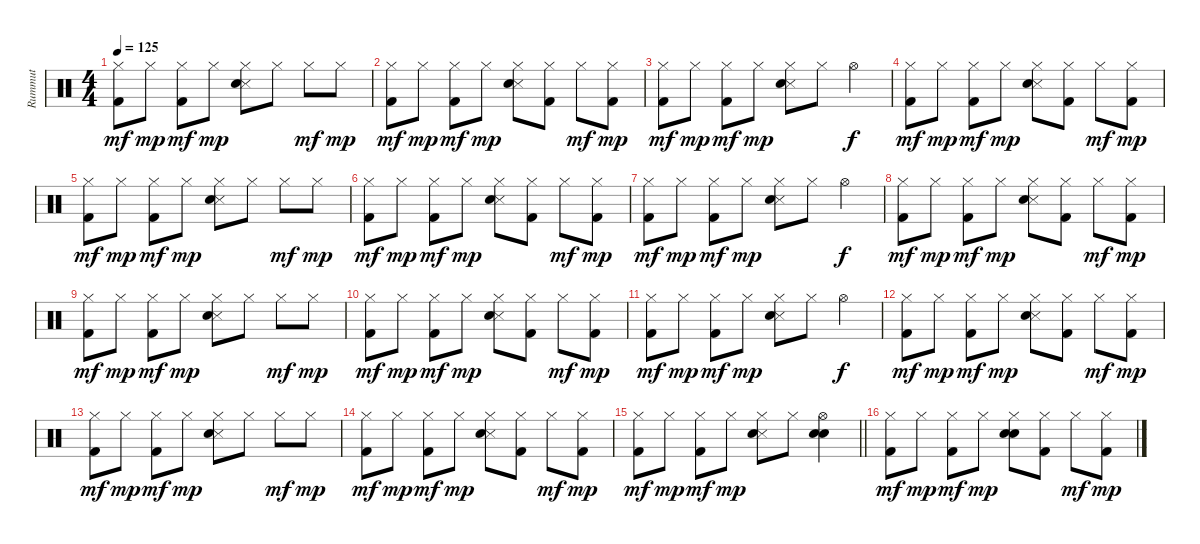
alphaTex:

\track ("Rummut" "Rummut") {instrument percussion}
\staff {score}
\articulation defaults
\ts (4 4)
\tempo 125
\clef neutral
\ks c
("Hi-Hat (closed)" "Kick (hit) 2").8{dy mf} "Hi-Hat (closed)".8{dy mp} ("Hi-Hat (closed)" "Kick (hit) 2").8{dy mf} "Hi-Hat (closed)".8{dy mp} ("Hi-Hat (closed)" "Snare (side stick) 3" "Electric Snare (hit)").8 "Hi-Hat (closed)".8 "Hi-Hat (closed)".8{dy mf} "Hi-Hat (closed)".8{dy mp} |
("Hi-Hat (closed)" "Kick (hit) 2").8{dy mf} "Hi-Hat (closed)".8{dy mp} ("Hi-Hat (closed)" "Kick (hit) 2").8{dy mf} "Hi-Hat (closed)".8{dy mp} ("Hi-Hat (closed)" "Snare (side stick) 3" "Electric Snare (hit)").8 ("Hi-Hat (closed)" "Kick (hit) 2").8 "Hi-Hat (closed)".8{dy mf} ("Hi-Hat (closed)" "Kick (hit) 2").8{dy mp} |
("Hi-Hat (closed)" "Kick (hit) 2").8{dy mf} "Hi-Hat (closed)".8{dy mp} ("Hi-Hat (closed)" "Kick (hit) 2").8{dy mf} "Hi-Hat (closed)".8{dy mp} ("Hi-Hat (closed)" "Snare (side stick) 3" "Electric Snare (hit)").8 "Hi-Hat (closed)".8 "Hi-Hat (open)".4{dy f} |
("Hi-Hat (closed)" "Kick (hit) 2").8{dy mf} "Hi-Hat (closed)".8{dy mp} ("Hi-Hat (closed)" "Kick (hit) 2").8{dy mf} "Hi-Hat (closed)".8{dy mp} ("Hi-Hat (closed)" "Snare (side stick) 3" "Electric Snare (hit)").8 ("Hi-Hat (closed)" "Kick (hit) 2").8 "Hi-Hat (closed)".8{dy mf} ("Hi-Hat (closed)" "Kick (hit) 2").8{dy mp} |
("Hi-Hat (closed)" "Kick (hit) 2").8{dy mf} "Hi-Hat (closed)".8{dy mp} ("Hi-Hat (closed)" "Kick (hit) 2").8{dy mf} "Hi-Hat (closed)".8{dy mp} ("Hi-Hat (closed)" "Snare (side stick) 3" "Electric Snare (hit)").8 "Hi-Hat (closed)".8 "Hi-Hat (closed)".8{dy mf} "Hi-Hat (closed)".8{dy mp} |
("Hi-Hat (closed)" "Kick (hit) 2").8{dy mf} "Hi-Hat (closed)".8{dy mp} ("Hi-Hat (closed)" "Kick (hit) 2").8{dy mf} "Hi-Hat (closed)".8{dy mp} ("Hi-Hat (closed)" "Snare (side stick) 3" "Electric Snare (hit)").8 ("Hi-Hat (closed)" "Kick (hit) 2").8 "Hi-Hat (closed)".8{dy mf} ("Hi-Hat (closed)" "Kick (hit) 2").8{dy mp} |
("Hi-Hat (closed)" "Kick (hit) 2").8{dy mf} "Hi-Hat (closed)".8{dy mp} ("Hi-Hat (closed)" "Kick (hit) 2").8{dy mf} "Hi-Hat (closed)".8{dy mp} ("Hi-Hat (closed)" "Snare (side stick) 3" "Electric Snare (hit)").8 "Hi-Hat (closed)".8 "Hi-Hat (open)".4{dy f} |
("Hi-Hat (closed)" "Kick (hit) 2").8{dy mf} "Hi-Hat (closed)".8{dy mp} ("Hi-Hat (closed)" "Kick (hit) 2").8{dy mf} "Hi-Hat (closed)".8{dy mp} ("Hi-Hat (closed)" "Snare (side stick) 3" "Electric Snare (hit)").8 ("Hi-Hat (closed)" "Kick (hit) 2").8 "Hi-Hat (closed)".8{dy mf} ("Hi-Hat (closed)" "Kick (hit) 2").8{dy mp} |
("Hi-Hat (closed)" "Kick (hit) 2").8{dy mf} "Hi-Hat (closed)".8{dy mp} ("Hi-Hat (closed)" "Kick (hit) 2").8{dy mf} "Hi-Hat (closed)".8{dy mp} ("Hi-Hat (closed)" "Snare (side stick) 3" "Electric Snare (hit)").8 "Hi-Hat (closed)".8 "Hi-Hat (closed)".8{dy mf} "Hi-Hat (closed)".8{dy mp} |
("Hi-Hat (closed)" "Kick (hit) 2").8{dy mf} "Hi-Hat (closed)".8{dy mp} ("Hi-Hat (closed)" "Kick (hit) 2").8{dy mf} "Hi-Hat (closed)".8{dy mp} ("Hi-Hat (closed)" "Snare (side stick) 3" "Electric Snare (hit)").8 ("Hi-Hat (closed)" "Kick (hit) 2").8 "Hi-Hat (closed)".8{dy mf} ("Hi-Hat (closed)" "Kick (hit) 2").8{dy mp} |
("Hi-Hat (closed)" "Kick (hit) 2").8{dy mf} "Hi-Hat (closed)".8{dy mp} ("Hi-Hat (closed)" "Kick (hit) 2").8{dy mf} "Hi-Hat (closed)".8{dy mp} ("Hi-Hat (closed)" "Snare (side stick) 3" "Electric Snare (hit)").8 "Hi-Hat (closed)".8 "Hi-Hat (open)".4{dy f} |
("Hi-Hat (closed)" "Kick (hit) 2").8{dy mf} "Hi-Hat (closed)".8{dy mp} ("Hi-Hat (closed)" "Kick (hit) 2").8{dy mf} "Hi-Hat (closed)".8{dy mp} ("Hi-Hat (closed)" "Snare (side stick) 3" "Electric Snare (hit)").8 ("Hi-Hat (closed)" "Kick (hit) 2").8 "Hi-Hat (closed)".8{dy mf} ("Hi-Hat (closed)" "Kick (hit) 2").8{dy mp} |
("Hi-Hat (closed)" "Kick (hit) 2").8{dy mf} "Hi-Hat (closed)".8{dy mp} ("Hi-Hat (closed)" "Kick (hit) 2").8{dy mf} "Hi-Hat (closed)".8{dy mp} ("Hi-Hat (closed)" "Snare (side stick) 3" "Electric Snare (hit)").8 "Hi-Hat (closed)".8 "Hi-Hat (closed)".8{dy mf} "Hi-Hat (closed)".8{dy mp} |
("Hi-Hat (closed)" "Kick (hit) 2").8{dy mf} "Hi-Hat (closed)".8{dy mp} ("Hi-Hat (closed)" "Kick (hit) 2").8{dy mf} "Hi-Hat (closed)".8{dy mp} ("Hi-Hat (closed)" "Snare (side stick) 3" "Electric Snare (hit)").8 ("Hi-Hat (closed)" "Kick (hit) 2").8 "Hi-Hat (closed)".8{dy mf} ("Hi-Hat (closed)" "Kick (hit) 2").8{dy mp} |
\barLineRight lightlight
("Hi-Hat (closed)" "Kick (hit) 2").8{dy mf} "Hi-Hat (closed)".8{dy mp} ("Hi-Hat (closed)" "Kick (hit) 2").8{dy mf} "Hi-Hat (closed)".8{dy mp} ("Hi-Hat (closed)" "Snare (side stick) 3" "Electric Snare (hit)").8 "Hi-Hat (closed)".8 ("Hi-Hat (open)" "Electric Snare (hit)" "Snare (hit) 2").4 |
\section ("" "")
("Hi-Hat (closed)" "Kick (hit) 2").8{dy mf} "Hi-Hat (closed)".8{dy mp} ("Hi-Hat (closed)" "Kick (hit) 2").8{dy mf} "Hi-Hat (closed)".8{dy mp} ("Hi-Hat (closed)" "Electric Snare (hit)" "Snare (hit) 2").8 ("Hi-Hat (closed)" "Kick (hit) 2").8 "Hi-Hat (closed)".8{dy mf} ("Hi-Hat (closed)" "Kick (hit) 2").8{dy mp}
